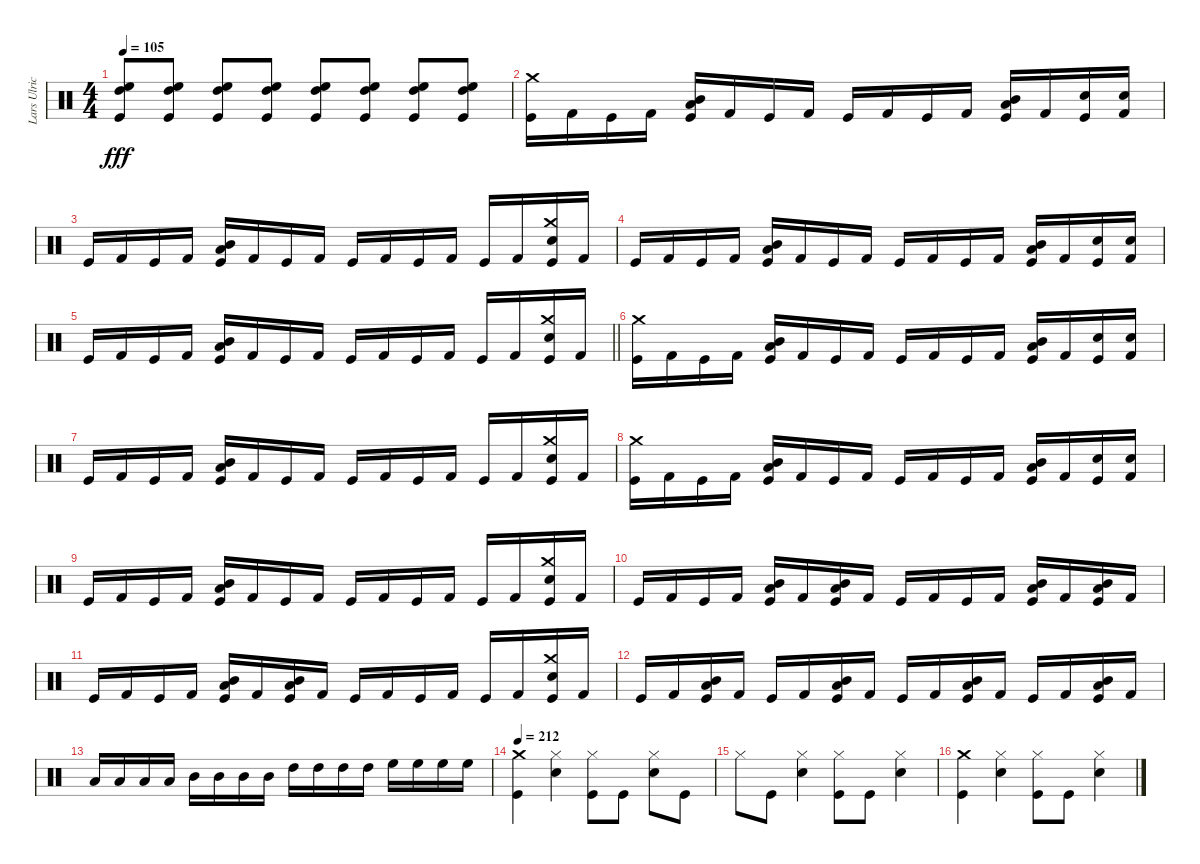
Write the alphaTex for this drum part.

\track ("Lars Ulrich" "Lars Ulric") {instrument percussion}
\staff {score}
\articulation defaults
\ts (4 4)
\tempo 105
\clef neutral
\ks c
("Kick (hit)" "High Floor Tom (hit)" "High Tom (hit)").8{dy fff} ("Kick (hit)" "High Tom (hit)" "High Floor Tom (hit)").8 ("Kick (hit)" "High Tom (hit)" "High Floor Tom (hit)").8 ("High Tom (hit)" "Kick (hit)" "High Floor Tom (hit)").8 ("Kick (hit)" "High Tom (hit)" "High Floor Tom (hit)").8 ("Kick (hit)" "High Tom (hit)" "High Floor Tom (hit)").8 ("Kick (hit)" "High Tom (hit)" "High Floor Tom (hit)").8 ("High Floor Tom (hit)" "Kick (hit)" "High Tom (hit)").8 |
("Kick (hit)" "Crash medium (hit)").16 "Kick (hit) 2".16 "Kick (hit)".16 "Kick (hit) 2".16 ("Kick (hit)" "Low Tom (hit)" "Mid Tom (hit)").16 "Kick (hit) 2".16 "Kick (hit)".16 "Kick (hit) 2".16 "Kick (hit)".16 "Kick (hit) 2".16 "Kick (hit)".16 "Kick (hit) 2".16 ("Kick (hit)" "Low Tom (hit)" "Mid Tom (hit)").16 "Kick (hit) 2".16 ("Kick (hit)" "Snare (hit) 2").16 ("Kick (hit) 2" "Snare (hit) 2").16 |
"Kick (hit)".16 "Kick (hit) 2".16 "Kick (hit)".16 "Kick (hit) 2".16 ("Low Tom (hit)" "Kick (hit)" "Mid Tom (hit)").16 "Kick (hit) 2".16 "Kick (hit)".16 "Kick (hit) 2".16 "Kick (hit)".16 "Kick (hit) 2".16 "Kick (hit)".16 "Kick (hit) 2".16 "Kick (hit)".16 "Kick (hit) 2".16 ("Crash medium (hit)" "Snare (hit) 2" "Kick (hit)").16 "Kick (hit) 2".16 |
"Kick (hit)".16 "Kick (hit) 2".16 "Kick (hit)".16 "Kick (hit) 2".16 ("Kick (hit)" "Low Tom (hit)" "Mid Tom (hit)").16 "Kick (hit) 2".16 "Kick (hit)".16 "Kick (hit) 2".16 "Kick (hit)".16 "Kick (hit) 2".16 "Kick (hit)".16 "Kick (hit) 2".16 ("Kick (hit)" "Low Tom (hit)" "Mid Tom (hit)").16 "Kick (hit) 2".16 ("Kick (hit)" "Snare (hit) 2").16 ("Snare (hit) 2" "Kick (hit) 2").16 |
\barLineRight lightlight "Kick (hit)".16 "Kick (hit) 2".16 "Kick (hit)".16 "Kick (hit) 2".16
("Low Tom (hit)" "Kick (hit)" "Mid Tom (hit)").16 "Kick (hit) 2".16 "Kick (hit)".16 "Kick (hit) 2".16 "Kick (hit)".16 "Kick (hit) 2".16 "Kick (hit)".16 "Kick (hit) 2".16 "Kick (hit)".16 "Kick (hit) 2".16 ("Snare (hit) 2" "Kick (hit)" "Crash medium (hit)").16 "Kick (hit) 2".16 |
("Kick (hit)" "Crash medium (hit)").16 "Kick (hit) 2".16 "Kick (hit)".16 "Kick (hit) 2".16 ("Mid Tom (hit)" "Kick (hit)" "Low Tom (hit)").16 "Kick (hit) 2".16 "Kick (hit)".16 "Kick (hit) 2".16 "Kick (hit)".16 "Kick (hit) 2".16 "Kick (hit)".16 "Kick (hit) 2".16 ("Kick (hit)" "Low Tom (hit)" "Mid Tom (hit)").16 "Kick (hit) 2".16 ("Snare (hit) 2" "Kick (hit)").16 ("Kick (hit) 2" "Snare (hit) 2").16 |
"Kick (hit)".16 "Kick (hit) 2".16 "Kick (hit)".16 "Kick (hit) 2".16 ("Low Tom (hit)" "Kick (hit)" "Mid Tom (hit)").16 "Kick (hit) 2".16 "Kick (hit)".16 "Kick (hit) 2".16 "Kick (hit)".16 "Kick (hit) 2".16 "Kick (hit)".16 "Kick (hit) 2".16 "Kick (hit)".16 "Kick (hit) 2".16 ("Snare (hit) 2" "Kick (hit)" "Crash medium (hit)").16 "Kick (hit) 2".16 |
("Crash medium (hit)" "Kick (hit)").16 "Kick (hit) 2".16 "Kick (hit)".16 "Kick (hit) 2".16 ("Mid Tom (hit)" "Kick (hit)" "Low Tom (hit)").16 "Kick (hit) 2".16 "Kick (hit)".16 "Kick (hit) 2".16 "Kick (hit)".16 "Kick (hit) 2".16 "Kick (hit)".16 "Kick (hit) 2".16 ("Mid Tom (hit)" "Kick (hit)" "Low Tom (hit)").16 "Kick (hit) 2".16 ("Kick (hit)" "Snare (hit) 2").16 ("Kick (hit) 2" "Snare (hit) 2").16 |
"Kick (hit)".16 "Kick (hit) 2".16 "Kick (hit)".16 "Kick (hit) 2".16 ("Kick (hit)" "Mid Tom (hit)" "Low Tom (hit)").16 "Kick (hit) 2".16 "Kick (hit)".16 "Kick (hit) 2".16 "Kick (hit)".16 "Kick (hit) 2".16 "Kick (hit)".16 "Kick (hit) 2".16 "Kick (hit)".16 "Kick (hit) 2".16 ("Snare (hit) 2" "Kick (hit)" "Crash medium (hit)").16 "Kick (hit) 2".16 |
"Kick (hit)".16 "Kick (hit) 2".16 "Kick (hit)".16 "Kick (hit) 2".16 ("Mid Tom (hit)" "Low Tom (hit)" "Kick (hit)").16 "Kick (hit) 2".16 ("Kick (hit)" "Mid Tom (hit)" "Low Tom (hit)").16 "Kick (hit) 2".16 "Kick (hit)".16 "Kick (hit) 2".16 "Kick (hit)".16 "Kick (hit) 2".16 ("Kick (hit)" "Mid Tom (hit)" "Low Tom (hit)").16 "Kick (hit) 2".16 ("Low Tom (hit)" "Mid Tom (hit)" "Kick (hit)").16 "Kick (hit) 2".16 |
"Kick (hit)".16 "Kick (hit) 2".16 "Kick (hit)".16 "Kick (hit) 2".16 ("Kick (hit)" "Mid Tom (hit)" "Low Tom (hit)").16 "Kick (hit) 2".16 ("Kick (hit)" "Low Tom (hit)" "Mid Tom (hit)").16 "Kick (hit) 2".16 "Kick (hit)".16 "Kick (hit) 2".16 "Kick (hit)".16 "Kick (hit) 2".16 "Kick (hit)".16 "Kick (hit) 2".16 ("Kick (hit)" "Crash medium (hit)" "Snare (hit) 2").16 "Kick (hit) 2".16 |
"Kick (hit)".16 "Kick (hit) 2".16 ("Kick (hit)" "Mid Tom (hit)" "Low Tom (hit)").16 "Kick (hit) 2".16 "Kick (hit)".16 "Kick (hit) 2".16 ("Kick (hit)" "Low Tom (hit)" "Mid Tom (hit)").16 "Kick (hit) 2".16 "Kick (hit)".16 "Kick (hit) 2".16 ("Low Tom (hit)" "Mid Tom (hit)" "Kick (hit)").16 "Kick (hit) 2".16 "Kick (hit)".16 "Kick (hit) 2".16 ("Mid Tom (hit)" "Low Tom (hit)" "Kick (hit)").16 "Kick (hit) 2".16 |
"Low Tom (hit)".16 "Low Tom (hit)".16 "Low Tom (hit)".16 "Low Tom (hit)".16 "Mid Tom (hit)".16 "Mid Tom (hit)".16 "Mid Tom (hit)".16 "Mid Tom (hit)".16 "High Tom (hit)".16 "High Tom (hit)".16 "High Tom (hit)".16 "High Tom (hit)".16 "High Floor Tom (hit)".16 "High Floor Tom (hit)".16 "High Floor Tom (hit)".16 "High Floor Tom (hit)".16 |
\tempo 212
("Kick (hit)" "Crash medium (hit)").4 ("Snare (hit) 2" "Hi-Hat (closed)").4 ("Kick (hit)" "Hi-Hat (closed)").8 "Kick (hit)".8 ("Hi-Hat (closed)" "Snare (hit) 2").8 "Kick (hit)".8 |
"Hi-Hat (closed)".8 "Kick (hit)".8 ("Snare (hit) 2" "Hi-Hat (closed)").4 ("Hi-Hat (closed)" "Kick (hit)").8 "Kick (hit)".8 ("Snare (hit) 2" "Hi-Hat (closed)").4 |
("Crash medium (hit)" "Kick (hit)").4 ("Snare (hit) 2" "Hi-Hat (closed)").4 ("Kick (hit)" "Hi-Hat (closed)").8 "Kick (hit)".8 ("Snare (hit) 2" "Hi-Hat (closed)").4
